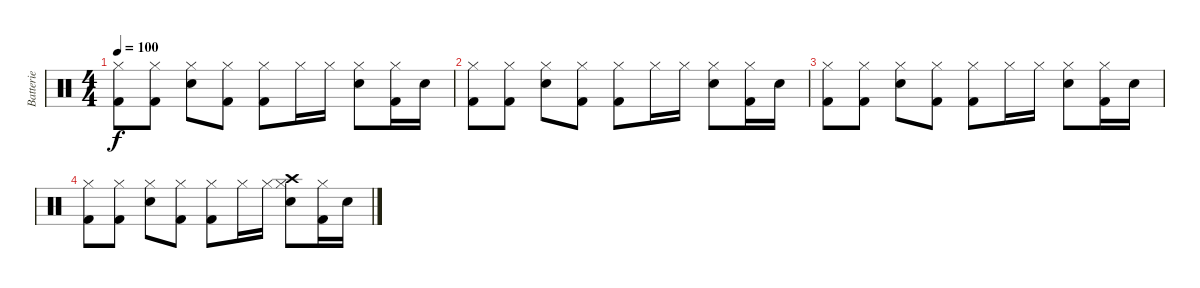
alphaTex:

\track ("Batterie" "Batterie") {instrument percussion}
\staff {score}
\articulation defaults
\ts (4 4)
\tempo 100
\clef neutral
\ks c
("Kick (hit) 2" "Hi-Hat (closed)").8{dy f} ("Kick (hit) 2" "Hi-Hat (closed)").8 ("Snare (hit) 2" "Hi-Hat (closed)").8 ("Kick (hit) 2" "Hi-Hat (closed)").8 ("Kick (hit) 2" "Hi-Hat (closed)").8 "Hi-Hat (closed)".16 "Hi-Hat (closed)".16 ("Snare (hit) 2" "Hi-Hat (closed)").8 ("Kick (hit) 2" "Hi-Hat (closed)").16 "Snare (hit) 2".16 |
("Kick (hit) 2" "Hi-Hat (closed)").8 ("Kick (hit) 2" "Hi-Hat (closed)").8 ("Snare (hit) 2" "Hi-Hat (closed)").8 ("Kick (hit) 2" "Hi-Hat (closed)").8 ("Kick (hit) 2" "Hi-Hat (closed)").8 "Hi-Hat (closed)".16 "Hi-Hat (closed)".16 ("Snare (hit) 2" "Hi-Hat (closed)").8 ("Kick (hit) 2" "Hi-Hat (closed)").16 "Snare (hit) 2".16 |
("Kick (hit) 2" "Hi-Hat (closed)").8 ("Kick (hit) 2" "Hi-Hat (closed)").8 ("Snare (hit) 2" "Hi-Hat (closed)").8 ("Kick (hit) 2" "Hi-Hat (closed)").8 ("Kick (hit) 2" "Hi-Hat (closed)").8 "Hi-Hat (closed)".16 "Hi-Hat (closed)".16 ("Snare (hit) 2" "Hi-Hat (closed)").8 ("Kick (hit) 2" "Hi-Hat (closed)").16 "Snare (hit) 2".16 |
("Kick (hit) 2" "Hi-Hat (closed)").8 ("Kick (hit) 2" "Hi-Hat (closed)").8 ("Snare (hit) 2" "Hi-Hat (closed)").8 ("Kick (hit) 2" "Hi-Hat (closed)").8 ("Kick (hit) 2" "Hi-Hat (closed)").8 "Hi-Hat (closed)".16 "Hi-Hat (closed)".16 ("Snare (hit) 2" "Crash high (hit)" "Hi-Hat (closed)").8 ("Kick (hit) 2" "Hi-Hat (closed)").16 "Snare (hit) 2".16
